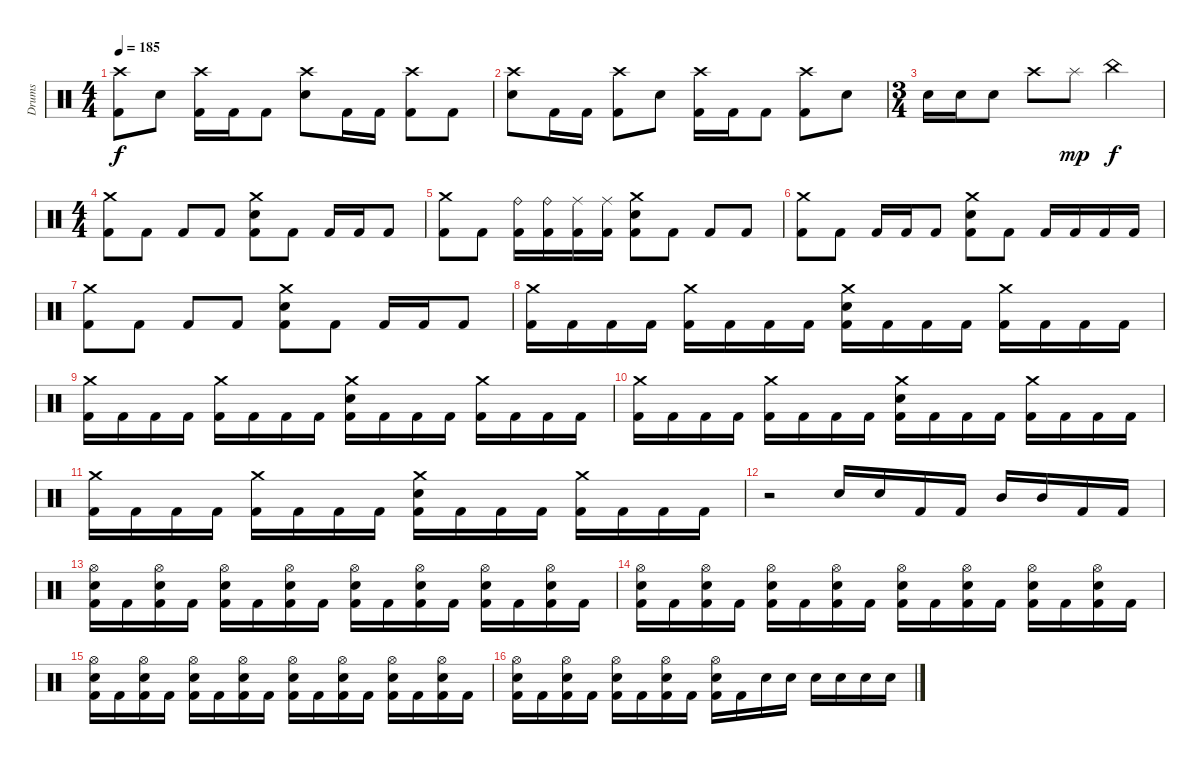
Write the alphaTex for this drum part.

\track ("Drums" "Drums") {instrument percussion}
\staff {score}
\articulation defaults
\ts (4 4)
\tempo 185
\clef neutral
\ks c
("Crash high (hit)" "Kick (hit) 2").8{dy f} "Electric Snare (hit)".8 ("Crash high (hit)" "Kick (hit) 2").16 "Kick (hit) 2".16 "Kick (hit) 2".8 ("Crash high (hit)" "Electric Snare (hit)").8 "Kick (hit) 2".16 "Kick (hit) 2".16 ("Crash high (hit)" "Kick (hit) 2").8 "Kick (hit) 2".8 |
("Crash high (hit)" "Electric Snare (hit)").8 "Kick (hit) 2".16 "Kick (hit) 2".16 ("Crash high (hit)" "Kick (hit) 2").8 "Electric Snare (hit)".8 ("Crash high (hit)" "Kick (hit) 2").16 "Kick (hit) 2".16 "Kick (hit) 2".8 ("Crash high (hit)" "Kick (hit) 2").8 "Electric Snare (hit)".8 |
\ts (3 4)
"Electric Snare (hit)".16 "Electric Snare (hit)".16 "Electric Snare (hit)".8 "Crash high (hit)".8 "Splash (hit)".8{dy mp} "China (hit)".4{dy f} |
\ts (4 4)
("Crash medium (hit)" "Kick (hit) 2").8 "Kick (hit) 2".8 "Kick (hit) 2".8 "Kick (hit) 2".8 ("Crash medium (hit)" "Electric Snare (hit)" "Kick (hit) 2").8 "Kick (hit) 2".8 "Kick (hit) 2".16 "Kick (hit) 2".16 "Kick (hit) 2".8 |
("Crash medium (hit)" "Kick (hit) 2").8 "Kick (hit) 2".8 ("Ride (bell)" "Kick (hit) 2").16 ("Ride (bell)" "Kick (hit) 2").16 ("Ride (middle)" "Kick (hit) 2").16 ("Ride (middle)" "Kick (hit) 2").16 ("Crash medium (hit)" "Electric Snare (hit)" "Kick (hit) 2").8 "Kick (hit) 2".8 "Kick (hit) 2".8 "Kick (hit) 2".8 |
("Crash medium (hit)" "Kick (hit) 2").8 "Kick (hit) 2".8 "Kick (hit) 2".16 "Kick (hit) 2".16 "Kick (hit) 2".8 ("Crash medium (hit)" "Electric Snare (hit)" "Kick (hit) 2").8 "Kick (hit) 2".8 "Kick (hit) 2".16 "Kick (hit) 2".16 "Kick (hit) 2".16 "Kick (hit) 2".16 |
("Crash medium (hit)" "Kick (hit) 2").8 "Kick (hit) 2".8 "Kick (hit) 2".8 "Kick (hit) 2".8 ("Crash medium (hit)" "Electric Snare (hit)" "Kick (hit) 2").8 "Kick (hit) 2".8 "Kick (hit) 2".16 "Kick (hit) 2".16 "Kick (hit) 2".8 |
("Crash medium (hit)" "Kick (hit) 2").16 "Kick (hit) 2".16 "Kick (hit) 2".16 "Kick (hit) 2".16 ("Crash medium (hit)" "Kick (hit) 2").16 "Kick (hit) 2".16 "Kick (hit) 2".16 "Kick (hit) 2".16 ("Crash medium (hit)" "Electric Snare (hit)" "Kick (hit) 2").16 "Kick (hit) 2".16 "Kick (hit) 2".16 "Kick (hit) 2".16 ("Crash medium (hit)" "Kick (hit) 2").16 "Kick (hit) 2".16 "Kick (hit) 2".16 "Kick (hit) 2".16 |
("Crash medium (hit)" "Kick (hit) 2").16 "Kick (hit) 2".16 "Kick (hit) 2".16 "Kick (hit) 2".16 ("Crash medium (hit)" "Kick (hit) 2").16 "Kick (hit) 2".16 "Kick (hit) 2".16 "Kick (hit) 2".16 ("Crash medium (hit)" "Electric Snare (hit)" "Kick (hit) 2").16 "Kick (hit) 2".16 "Kick (hit) 2".16 "Kick (hit) 2".16 ("Crash medium (hit)" "Kick (hit) 2").16 "Kick (hit) 2".16 "Kick (hit) 2".16 "Kick (hit) 2".16 |
("Crash medium (hit)" "Kick (hit) 2").16 "Kick (hit) 2".16 "Kick (hit) 2".16 "Kick (hit) 2".16 ("Crash medium (hit)" "Kick (hit) 2").16 "Kick (hit) 2".16 "Kick (hit) 2".16 "Kick (hit) 2".16 ("Crash medium (hit)" "Electric Snare (hit)" "Kick (hit) 2").16 "Kick (hit) 2".16 "Kick (hit) 2".16 "Kick (hit) 2".16 ("Crash medium (hit)" "Kick (hit) 2").16 "Kick (hit) 2".16 "Kick (hit) 2".16 "Kick (hit) 2".16 |
("Crash medium (hit)" "Kick (hit) 2").16 "Kick (hit) 2".16 "Kick (hit) 2".16 "Kick (hit) 2".16 ("Crash medium (hit)" "Kick (hit) 2").16 "Kick (hit) 2".16 "Kick (hit) 2".16 "Kick (hit) 2".16 ("Crash medium (hit)" "Electric Snare (hit)" "Kick (hit) 2").16 "Kick (hit) 2".16 "Kick (hit) 2".16 "Kick (hit) 2".16 ("Crash medium (hit)" "Kick (hit) 2").16 "Kick (hit) 2".16 "Kick (hit) 2".16 "Kick (hit) 2".16 |
r.2 "Electric Snare (hit)".16 "Electric Snare (hit)".16 "Kick (hit) 2".16 "Kick (hit) 2".16 "Mid Tom (hit)".16 "Mid Tom (hit)".16 "Kick (hit) 2".16 "Kick (hit) 2".16 |
("Hi-Hat (open)" "Electric Snare (hit)" "Kick (hit) 2").16 "Kick (hit) 2".16 ("Hi-Hat (open)" "Electric Snare (hit)" "Kick (hit) 2").16 "Kick (hit) 2".16 ("Hi-Hat (open)" "Electric Snare (hit)" "Kick (hit) 2").16 "Kick (hit) 2".16 ("Hi-Hat (open)" "Electric Snare (hit)" "Kick (hit) 2").16 "Kick (hit) 2".16 ("Hi-Hat (open)" "Electric Snare (hit)" "Kick (hit) 2").16 "Kick (hit) 2".16 ("Hi-Hat (open)" "Electric Snare (hit)" "Kick (hit) 2").16 "Kick (hit) 2".16 ("Hi-Hat (open)" "Electric Snare (hit)" "Kick (hit) 2").16 "Kick (hit) 2".16 ("Hi-Hat (open)" "Electric Snare (hit)" "Kick (hit) 2").16 "Kick (hit) 2".16 |
("Hi-Hat (open)" "Electric Snare (hit)" "Kick (hit) 2").16 "Kick (hit) 2".16 ("Hi-Hat (open)" "Electric Snare (hit)" "Kick (hit) 2").16 "Kick (hit) 2".16 ("Hi-Hat (open)" "Electric Snare (hit)" "Kick (hit) 2").16 "Kick (hit) 2".16 ("Hi-Hat (open)" "Electric Snare (hit)" "Kick (hit) 2").16 "Kick (hit) 2".16 ("Hi-Hat (open)" "Electric Snare (hit)" "Kick (hit) 2").16 "Kick (hit) 2".16 ("Hi-Hat (open)" "Electric Snare (hit)" "Kick (hit) 2").16 "Kick (hit) 2".16 ("Hi-Hat (open)" "Electric Snare (hit)" "Kick (hit) 2").16 "Kick (hit) 2".16 ("Hi-Hat (open)" "Electric Snare (hit)" "Kick (hit) 2").16 "Kick (hit) 2".16 |
("Hi-Hat (open)" "Electric Snare (hit)" "Kick (hit) 2").16 "Kick (hit) 2".16 ("Hi-Hat (open)" "Electric Snare (hit)" "Kick (hit) 2").16 "Kick (hit) 2".16 ("Hi-Hat (open)" "Electric Snare (hit)" "Kick (hit) 2").16 "Kick (hit) 2".16 ("Hi-Hat (open)" "Electric Snare (hit)" "Kick (hit) 2").16 "Kick (hit) 2".16 ("Hi-Hat (open)" "Electric Snare (hit)" "Kick (hit) 2").16 "Kick (hit) 2".16 ("Hi-Hat (open)" "Electric Snare (hit)" "Kick (hit) 2").16 "Kick (hit) 2".16 ("Hi-Hat (open)" "Electric Snare (hit)" "Kick (hit) 2").16 "Kick (hit) 2".16 ("Hi-Hat (open)" "Electric Snare (hit)" "Kick (hit) 2").16 "Kick (hit) 2".16 |
("Hi-Hat (open)" "Electric Snare (hit)" "Kick (hit) 2").16 "Kick (hit) 2".16 ("Hi-Hat (open)" "Electric Snare (hit)" "Kick (hit) 2").16 "Kick (hit) 2".16 ("Hi-Hat (open)" "Electric Snare (hit)" "Kick (hit) 2").16 "Kick (hit) 2".16 ("Hi-Hat (open)" "Electric Snare (hit)" "Kick (hit) 2").16 "Kick (hit) 2".16 ("Hi-Hat (open)" "Electric Snare (hit)" "Kick (hit) 2").16 "Kick (hit) 2".16 "Electric Snare (hit)".16 "Electric Snare (hit)".16 "Electric Snare (hit)".16 "Electric Snare (hit)".16 "Electric Snare (hit)".16 "Electric Snare (hit)".16
